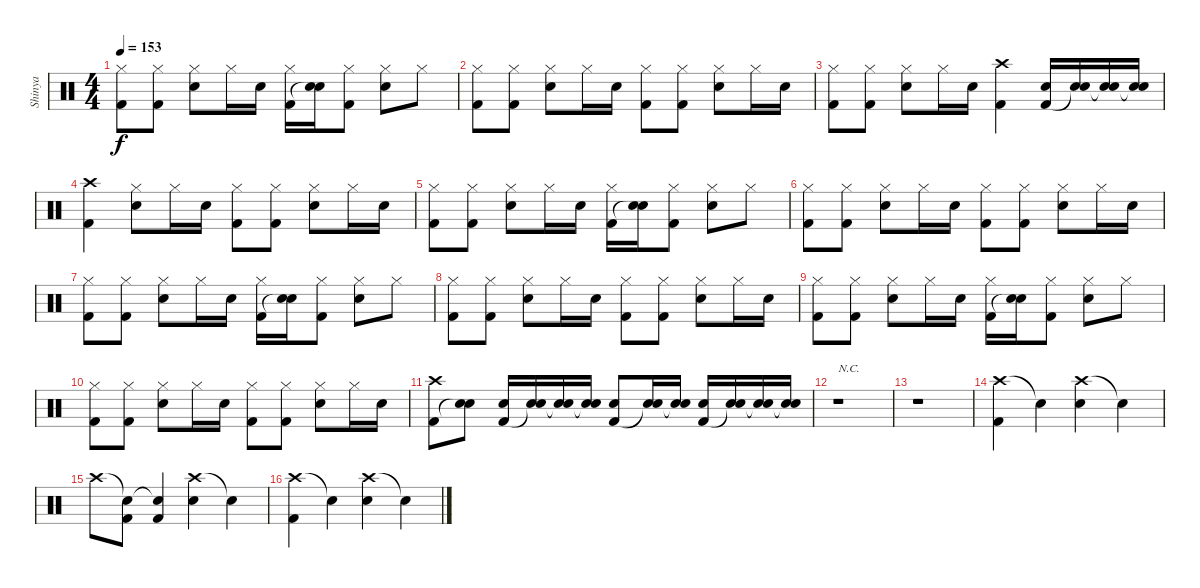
\track ("Shinya" "Shinya") {instrument percussion}
\staff {score}
\articulation defaults
\ts (4 4)
\tempo 153
\clef neutral
\ks c
("Hi-Hat (closed)" "Kick (hit) 2").8{dy f} ("Hi-Hat (closed)" "Kick (hit) 2").8 ("Hi-Hat (closed)" "Electric Snare (hit)").8 "Hi-Hat (closed)".16 "Electric Snare (hit)".16 ("Hi-Hat (closed)" "Kick (hit) 2").16 ("Electric Snare (hit)" "Snare (hit)"{t}).16 ("Hi-Hat (closed)" "Kick (hit) 2").8 ("Hi-Hat (closed)" "Electric Snare (hit)").8 "Hi-Hat (closed)".8 |
("Hi-Hat (closed)" "Kick (hit) 2").8 ("Hi-Hat (closed)" "Kick (hit) 2").8 ("Hi-Hat (closed)" "Electric Snare (hit)").8 "Hi-Hat (closed)".16 "Electric Snare (hit)".16 ("Hi-Hat (closed)" "Kick (hit) 2").8 ("Hi-Hat (closed)" "Kick (hit) 2").8 ("Hi-Hat (closed)" "Electric Snare (hit)").8 "Hi-Hat (closed)".16 "Electric Snare (hit)".16 |
("Hi-Hat (closed)" "Kick (hit) 2").8 ("Hi-Hat (closed)" "Kick (hit) 2").8 ("Hi-Hat (closed)" "Electric Snare (hit)").8 "Hi-Hat (closed)".16 "Electric Snare (hit)".16 ("Crash high (hit)" "Kick (hit) 2").4 ("Electric Snare (hit)" "Kick (hit) 2").16 ("Electric Snare (hit)" "Snare (hit)"{t}).16 ("Electric Snare (hit)" "Snare (hit)"{t}).16 ("Electric Snare (hit)" "Snare (hit)"{t}).16 |
("Crash high (hit)" "Kick (hit) 2").4 ("Hi-Hat (closed)" "Electric Snare (hit)").8 "Hi-Hat (closed)".16 "Electric Snare (hit)".16 ("Hi-Hat (closed)" "Kick (hit) 2").8 ("Hi-Hat (closed)" "Kick (hit) 2").8 ("Hi-Hat (closed)" "Electric Snare (hit)").8 "Hi-Hat (closed)".16 "Electric Snare (hit)".16 |
("Hi-Hat (closed)" "Kick (hit) 2").8 ("Hi-Hat (closed)" "Kick (hit) 2").8 ("Hi-Hat (closed)" "Electric Snare (hit)").8 "Hi-Hat (closed)".16 "Electric Snare (hit)".16 ("Hi-Hat (closed)" "Kick (hit) 2").16 ("Electric Snare (hit)" "Snare (hit)"{t}).16 ("Hi-Hat (closed)" "Kick (hit) 2").8 ("Hi-Hat (closed)" "Electric Snare (hit)").8 "Hi-Hat (closed)".8 |
("Hi-Hat (closed)" "Kick (hit) 2").8 ("Hi-Hat (closed)" "Kick (hit) 2").8 ("Hi-Hat (closed)" "Electric Snare (hit)").8 "Hi-Hat (closed)".16 "Electric Snare (hit)".16 ("Hi-Hat (closed)" "Kick (hit) 2").8 ("Hi-Hat (closed)" "Kick (hit) 2").8 ("Hi-Hat (closed)" "Electric Snare (hit)").8 "Hi-Hat (closed)".16 "Electric Snare (hit)".16 |
("Hi-Hat (closed)" "Kick (hit) 2").8 ("Hi-Hat (closed)" "Kick (hit) 2").8 ("Hi-Hat (closed)" "Electric Snare (hit)").8 "Hi-Hat (closed)".16 "Electric Snare (hit)".16 ("Hi-Hat (closed)" "Kick (hit) 2").16 ("Electric Snare (hit)" "Snare (hit)"{t}).16 ("Hi-Hat (closed)" "Kick (hit) 2").8 ("Hi-Hat (closed)" "Electric Snare (hit)").8 "Hi-Hat (closed)".8 |
("Hi-Hat (closed)" "Kick (hit) 2").8 ("Hi-Hat (closed)" "Kick (hit) 2").8 ("Hi-Hat (closed)" "Electric Snare (hit)").8 "Hi-Hat (closed)".16 "Electric Snare (hit)".16 ("Hi-Hat (closed)" "Kick (hit) 2").8 ("Hi-Hat (closed)" "Kick (hit) 2").8 ("Hi-Hat (closed)" "Electric Snare (hit)").8 "Hi-Hat (closed)".16 "Electric Snare (hit)".16 |
("Hi-Hat (closed)" "Kick (hit) 2").8 ("Hi-Hat (closed)" "Kick (hit) 2").8 ("Hi-Hat (closed)" "Electric Snare (hit)").8 "Hi-Hat (closed)".16 "Electric Snare (hit)".16 ("Hi-Hat (closed)" "Kick (hit) 2").16 ("Electric Snare (hit)" "Snare (hit)"{t}).16 ("Hi-Hat (closed)" "Kick (hit) 2").8 ("Hi-Hat (closed)" "Electric Snare (hit)").8 "Hi-Hat (closed)".8 |
("Hi-Hat (closed)" "Kick (hit) 2").8 ("Hi-Hat (closed)" "Kick (hit) 2").8 ("Hi-Hat (closed)" "Electric Snare (hit)").8 "Hi-Hat (closed)".16 "Electric Snare (hit)".16 ("Hi-Hat (closed)" "Kick (hit) 2").8 ("Hi-Hat (closed)" "Kick (hit) 2").8 ("Hi-Hat (closed)" "Electric Snare (hit)").8 "Hi-Hat (closed)".16 "Electric Snare (hit)".16 |
("Crash high (hit)" "Kick (hit) 2").8 ("Electric Snare (hit)" "Snare (hit)"{t}).8 ("Electric Snare (hit)" "Kick (hit) 2").16 ("Electric Snare (hit)" "Snare (hit)"{t}).16 ("Electric Snare (hit)" "Snare (hit)"{t}).16 ("Electric Snare (hit)" "Snare (hit)"{t}).16 ("Electric Snare (hit)" "Kick (hit) 2").8 ("Electric Snare (hit)" "Snare (hit)"{t}).16 ("Electric Snare (hit)" "Snare (hit)"{t}).16 ("Electric Snare (hit)" "Kick (hit) 2").16 ("Electric Snare (hit)" "Snare (hit)"{t}).16 ("Electric Snare (hit)" "Snare (hit)"{t}).16 ("Electric Snare (hit)" "Snare (hit)"{t}).16 |
r.1{txt "N.C."} |
r.1 |
("Crash high (hit)" "Kick (hit) 2").4 "Snare (hit)"{t}.4 ("Crash high (hit)" "Electric Snare (hit)").4 "Snare (hit)"{t}.4 |
"Crash high (hit)".8 ("Snare (hit)"{t} "Kick (hit) 2").8 ("Snare (hit)"{t} "Kick (hit) 2").4 ("Crash high (hit)" "Electric Snare (hit)").4 "Snare (hit)"{t}.4 |
("Crash high (hit)" "Kick (hit) 2").4 "Snare (hit)"{t}.4 ("Crash high (hit)" "Electric Snare (hit)").4 "Snare (hit)"{t}.4
